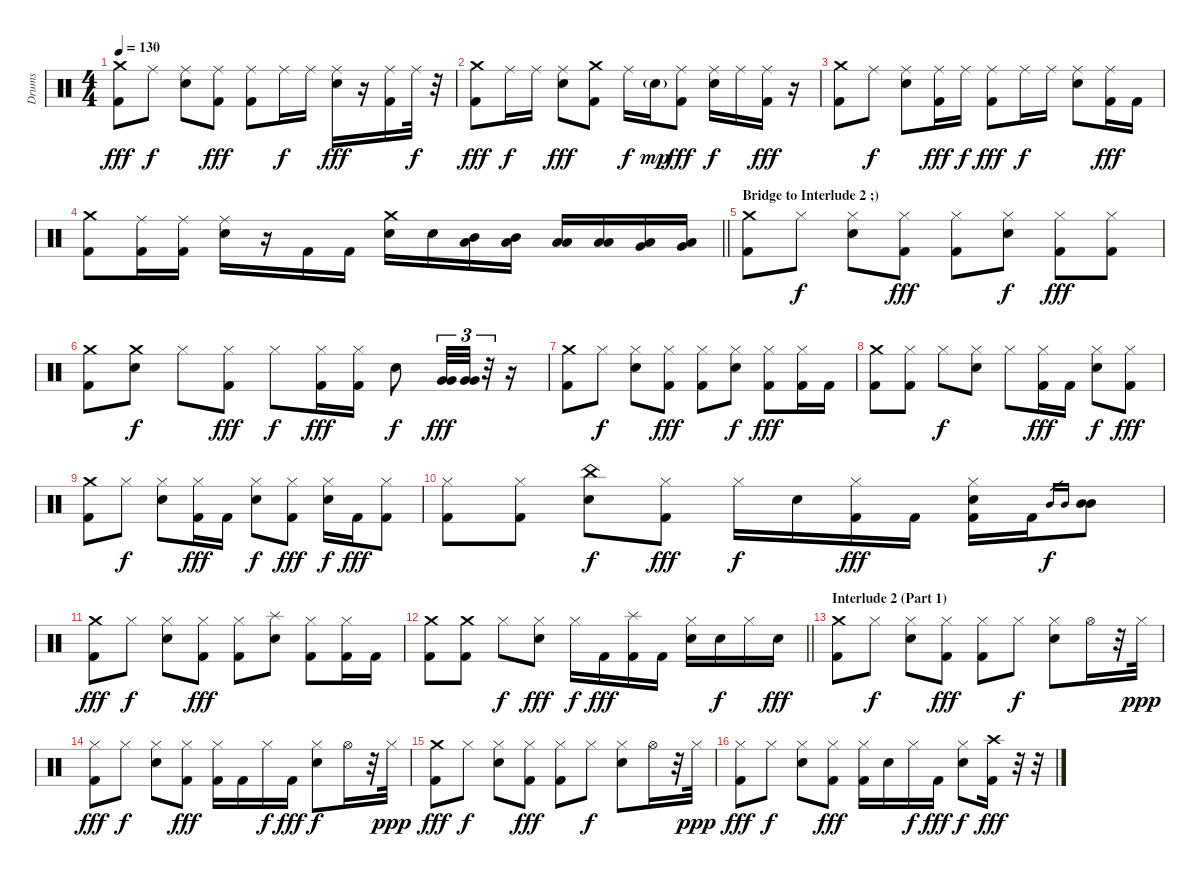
\track ("Drums" "Drums") {instrument percussion}
\staff {score}
\articulation defaults
\ts (4 4)
\tempo 130
\clef neutral
\ks c
("Crash medium (hit)" "Kick (hit) 2").8{dy fff} "Ride (middle)".8{dy f} ("Ride (middle)" "Snare (hit) 2").8 ("Ride (middle)" "Kick (hit) 2").8{dy fff} ("Ride (middle)" "Kick (hit) 2").8 "Ride (middle)".16{dy f} "Ride (middle)".16 ("Ride (middle)" "Snare (hit) 2").16{dy fff} r.16 ("Ride (middle)" "Kick (hit) 2").16 "Ride (middle)".32{dy f} r.32 |
("Crash medium (hit)" "Kick (hit) 2").8{dy fff} "Ride (middle)".16{dy f} "Ride (middle)".16 ("Ride (middle)" "Snare (hit) 2").8{dy fff} ("Crash medium (hit)" "Kick (hit) 2").8 "Ride (middle)".16{dy f} "Snare (hit) 2"{g}.16{dy mp} ("Ride (middle)" "Kick (hit) 2").8{dy fff} ("Ride (middle)" "Snare (hit) 2").16{dy f} "Ride (middle)".16 ("Ride (middle)" "Kick (hit) 2").16{dy fff} r.16 |
("Crash medium (hit)" "Kick (hit) 2").8 "Ride (middle)".8{dy f} ("Ride (middle)" "Snare (hit) 2").8 ("Ride (middle)" "Kick (hit) 2").16{dy fff} "Ride (middle)".16{dy f} ("Ride (middle)" "Kick (hit) 2").8{dy fff} "Ride (middle)".16{dy f} "Ride (middle)".16 ("Ride (middle)" "Snare (hit) 2").8 ("Ride (middle)" "Kick (hit) 2").16{dy fff} "Kick (hit) 2".16 |
\barLineRight lightlight
("Crash medium (hit)" "Kick (hit) 2").8 ("Ride (middle)" "Kick (hit) 2").16 ("Ride (middle)" "Kick (hit) 2").16 ("Ride (middle)" "Snare (hit) 2").16 r.16 "Kick (hit) 2".16 "Kick (hit) 2".16 ("Crash medium (hit)" "Snare (hit) 2").16 "Snare (hit) 2".16 ("Mid Tom (hit)" "Low Floor Tom (hit)").16{volume 16} ("Mid Tom (hit)" "Low Floor Tom (hit)").16 ("Low Tom (hit)" "Low Floor Tom (hit)").16 ("Low Tom (hit)" "Low Floor Tom (hit)").16 ("Very Low Tom (hit)" "Low Floor Tom (hit)").16 ("Very Low Tom (hit)" "Low Floor Tom (hit)").16 |
\section ("" "Bridge to Interlude 2 ;)")
("Crash medium (hit)" "Kick (hit) 2").8{volume 12} "Hi-Hat (closed)".8{dy f} ("Hi-Hat (closed)" "Snare (hit) 2").8 ("Hi-Hat (closed)" "Kick (hit) 2").8{dy fff} ("Hi-Hat (closed)" "Kick (hit) 2").8 ("Hi-Hat (closed)" "Snare (hit) 2").8{dy f} ("Hi-Hat (closed)" "Kick (hit) 2").8{dy fff} ("Hi-Hat (closed)" "Kick (hit) 2").8 |
("Crash medium (hit)" "Kick (hit) 2").8 ("Crash medium (hit)" "Snare (hit) 2").8{dy f} "Hi-Hat (closed)".8 ("Hi-Hat (closed)" "Kick (hit) 2").8{dy fff} "Hi-Hat (closed)".8{dy f} ("Hi-Hat (closed)" "Kick (hit) 2").16{dy fff} ("Hi-Hat (closed)" "Kick (hit) 2").16 "Snare (hit) 2".8{dy f} ("Very Low Tom (hit)" "Very Low Tom (hit)").32{tu (3 2) dy fff volume 16} ("Very Low Tom (hit)" "Very Low Tom (hit)").32{tu (3 2)} r.32{tu (3 2)} r.16 |
("Crash medium (hit)" "Kick (hit) 2").8{volume 13} "Hi-Hat (closed)".8{dy f} ("Hi-Hat (closed)" "Snare (hit) 2").8 ("Hi-Hat (closed)" "Kick (hit) 2").8{dy fff} ("Hi-Hat (closed)" "Kick (hit) 2").8 ("Hi-Hat (closed)" "Snare (hit) 2").8{dy f} ("Hi-Hat (closed)" "Kick (hit) 2").8{dy fff} ("Hi-Hat (closed)" "Kick (hit) 2").16 "Kick (hit) 2".16 |
("Crash medium (hit)" "Kick (hit) 2").8 ("Hi-Hat (closed)" "Kick (hit) 2").8 "Hi-Hat (closed)".8{dy f} ("Hi-Hat (closed)" "Snare (hit) 2").8 "Hi-Hat (closed)".8 ("Hi-Hat (closed)" "Kick (hit) 2").16{dy fff} "Kick (hit) 2".16 ("Hi-Hat (closed)" "Snare (hit) 2").8{dy f} ("Hi-Hat (closed)" "Kick (hit) 2").8{dy fff} |
("Crash medium (hit)" "Kick (hit) 2").8 "Hi-Hat (closed)".8{dy f} ("Hi-Hat (closed)" "Snare (hit) 2").8 ("Hi-Hat (closed)" "Kick (hit) 2").16{dy fff} "Kick (hit) 2".16 ("Hi-Hat (closed)" "Snare (hit) 2").8{dy f} ("Hi-Hat (closed)" "Kick (hit) 2").8{dy fff} ("Hi-Hat (closed)" "Snare (hit) 2").16{dy f} "Kick (hit) 2".16{dy fff} ("Hi-Hat (closed)" "Kick (hit) 2").8 |
("Hi-Hat (closed)" "Kick (hit) 2").8 ("Hi-Hat (closed)" "Kick (hit) 2").8 ("China (hit)" "Snare (hit) 2").8{dy f} ("Hi-Hat (closed)" "Kick (hit) 2").8{dy fff} "Hi-Hat (closed)".16{dy f} "Snare (hit) 2".16 ("Hi-Hat (closed)" "Kick (hit) 2").16{dy fff} "Kick (hit) 2".16 ("Hi-Hat (closed)" "Snare (hit) 2" "Kick (hit) 2").16 "Kick (hit) 2".16 "Mid Tom (hit)".16{gr dy f} "Mid Tom (hit)".16{gr} ("Mid Tom (hit)" "Mid Tom (hit)").8 |
("Crash medium (hit)" "Kick (hit) 2").8{dy fff} "Hi-Hat (closed)".8{dy f} ("Hi-Hat (closed)" "Snare (hit) 2").8 ("Hi-Hat (closed)" "Kick (hit) 2").8{dy fff} ("Hi-Hat (closed)" "Kick (hit) 2").8 ("Splash (hit)" "Snare (hit) 2").8 ("Hi-Hat (closed)" "Kick (hit) 2").8 ("Hi-Hat (closed)" "Kick (hit) 2").16 "Kick (hit) 2".16 |
\barLineRight lightlight
("Crash medium (hit)" "Kick (hit) 2").8 ("Crash medium (hit)" "Kick (hit) 2").8 "Hi-Hat (closed)".8{dy f} ("Hi-Hat (closed)" "Snare (hit) 2").8{dy fff} "Hi-Hat (closed)".16{dy f} "Kick (hit) 2".16{dy fff} ("Splash (hit)" "Kick (hit) 2").16 "Kick (hit) 2".16 ("Hi-Hat (closed)" "Snare (hit) 2").16 "Snare (hit) 2".16{dy f} "Hi-Hat (closed)".16 "Snare (hit) 2".16{dy fff} |
\section ("" "Interlude 2 (Part 1)")
("Crash medium (hit)" "Kick (hit) 2").8 "Hi-Hat (closed)".8{dy f} ("Hi-Hat (closed)" "Snare (hit) 2").8 ("Hi-Hat (closed)" "Kick (hit) 2").8{dy fff} ("Hi-Hat (closed)" "Kick (hit) 2").8 "Hi-Hat (closed)".8{dy f} ("Hi-Hat (closed)" "Snare (hit) 2").8 "Hi-Hat (open)".16 r.32 "Hi-Hat (closed)".32{dy ppp} |
("Hi-Hat (closed)" "Kick (hit) 2").8{dy fff} "Hi-Hat (closed)".8{dy f} ("Hi-Hat (closed)" "Snare (hit) 2").8 ("Hi-Hat (closed)" "Kick (hit) 2").8{dy fff} ("Hi-Hat (closed)" "Kick (hit) 2").16 "Kick (hit) 2".16 "Hi-Hat (closed)".16{dy f} "Kick (hit) 2".16{dy fff} ("Hi-Hat (closed)" "Snare (hit) 2").8{dy f} "Hi-Hat (open)".16 r.32 "Hi-Hat (closed)".32{dy ppp} |
("Crash medium (hit)" "Kick (hit) 2").8{dy fff} "Hi-Hat (closed)".8{dy f} ("Hi-Hat (closed)" "Snare (hit) 2").8 ("Hi-Hat (closed)" "Kick (hit) 2").8{dy fff} ("Hi-Hat (closed)" "Kick (hit) 2").8 "Hi-Hat (closed)".8{dy f} ("Hi-Hat (closed)" "Snare (hit) 2").8 "Hi-Hat (open)".16 r.32 "Hi-Hat (closed)".32{dy ppp} |
("Hi-Hat (closed)" "Kick (hit) 2").8{dy fff} "Hi-Hat (closed)".8{dy f} ("Hi-Hat (closed)" "Snare (hit) 2").8 ("Hi-Hat (closed)" "Kick (hit) 2").8{dy fff} ("Hi-Hat (closed)" "Kick (hit) 2").16 "Snare (hit) 2".16 "Hi-Hat (closed)".16{dy f} "Kick (hit) 2".16{dy fff} ("Hi-Hat (closed)" "Snare (hit) 2").8{dy f} ("Crash high (hit)" "Kick (hit) 2").16{dy fff} r.32 r.32
